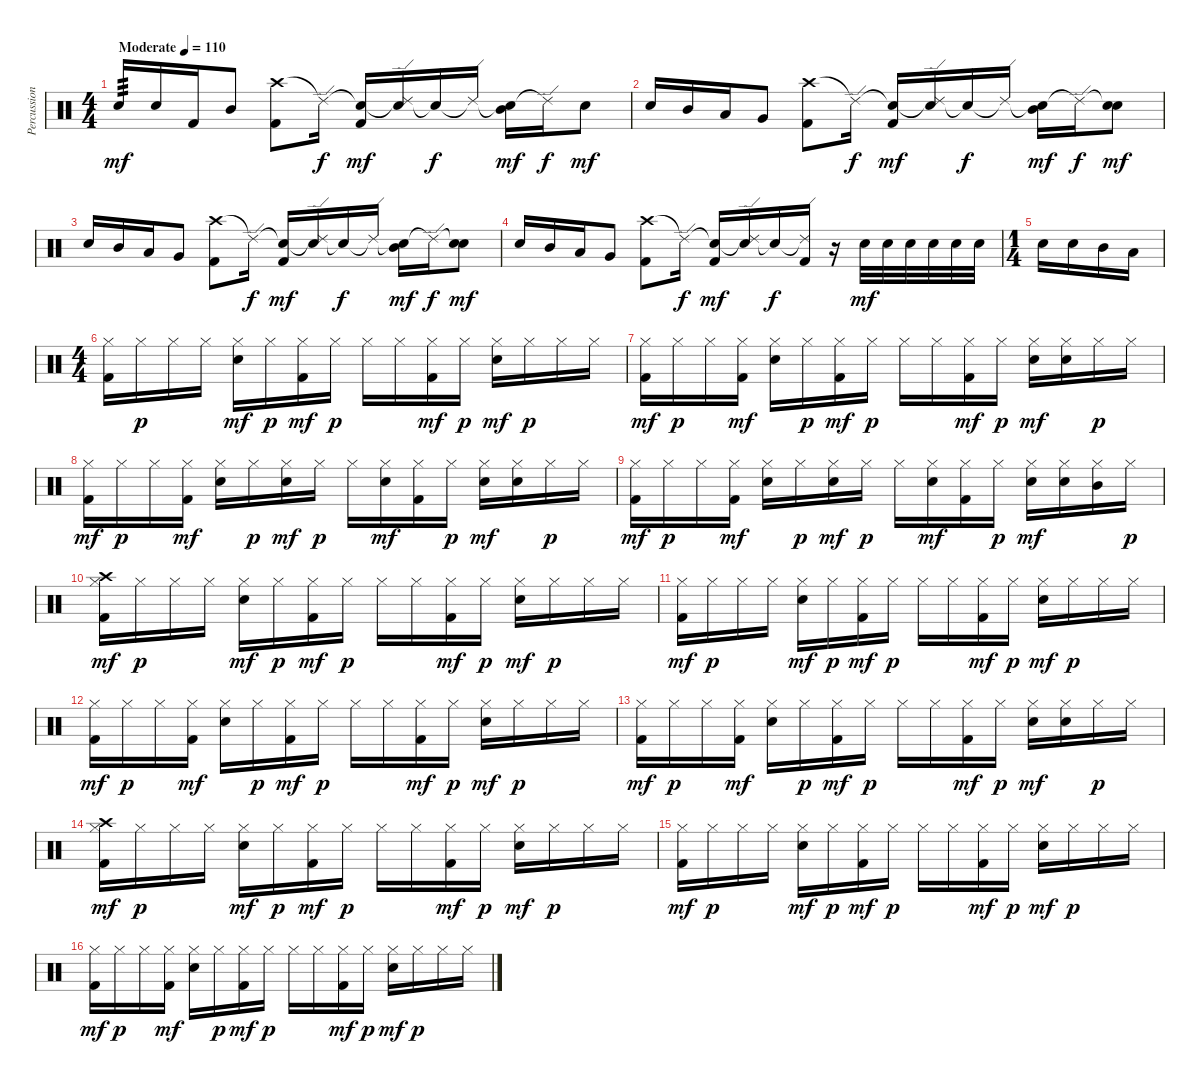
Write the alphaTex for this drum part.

\track ("Percussion" "Percussion") {instrument percussion}
\staff {score}
\articulation defaults
\ts (4 4)
\tempo (110 "Moderate")
\clef neutral
\ks c "Electric Snare (hit)".16{tp 3 dy mf} "Electric Snare (hit)".16 "Kick (hit) 2".16 "Mid Tom (hit)".8
("Crash high (hit)" "Kick (hit) 2").8 "Ride (edge) 2"{t}.16{dy f} ("Snare (hit)"{t} "Kick (hit) 2").16{dy mf} ("Ride (edge) 2"{t} "Electric Snare (hit)").16 "Snare (hit)"{t}.16{dy f} "Ride (edge) 2"{t}.16 ("Snare (hit)"{t} "Mid Tom (hit)").16{dy mf} "Ride (edge) 2"{t}.16{dy f} "Electric Snare (hit)".8{dy mf} |
"Electric Snare (hit)".16 "Mid Tom (hit)".16 "Low Tom (hit)".16 "Very Low Tom (hit)".8 ("Crash high (hit)" "Kick (hit) 2").8 "Ride (edge) 2"{t}.16{dy f} ("Snare (hit)"{t} "Kick (hit) 2").16{dy mf} ("Ride (edge) 2"{t} "Electric Snare (hit)").16 "Snare (hit)"{t}.16{dy f} "Ride (edge) 2"{t}.16 ("Snare (hit)"{t} "Mid Tom (hit)").16{dy mf} "Ride (edge) 2"{t}.16{dy f} ("Snare (hit)"{t} "Electric Snare (hit)").8{dy mf} |
"Electric Snare (hit)".16 "Mid Tom (hit)".16 "Low Tom (hit)".16 "Very Low Tom (hit)".8 ("Crash high (hit)" "Kick (hit) 2").8 "Ride (edge) 2"{t}.16{dy f} ("Snare (hit)"{t} "Kick (hit) 2").16{dy mf} ("Ride (edge) 2"{t} "Electric Snare (hit)").16 "Snare (hit)"{t}.16{dy f} "Ride (edge) 2"{t}.16 ("Snare (hit)"{t} "Mid Tom (hit)").16{dy mf} "Ride (edge) 2"{t}.16{dy f} ("Snare (hit)"{t} "Electric Snare (hit)").8{dy mf} |
"Electric Snare (hit)".16 "Mid Tom (hit)".16 "Low Tom (hit)".16 "Very Low Tom (hit)".8 ("Crash high (hit)" "Kick (hit) 2").8 "Ride (edge) 2"{t}.16{dy f} ("Snare (hit)"{t} "Kick (hit) 2").16{dy mf} ("Ride (edge) 2"{t} "Electric Snare (hit)").16 "Snare (hit)"{t}.16{dy f} ("Ride (edge) 2"{t} "Kick (hit) 2").16 r.16 "Electric Snare (hit)".32{dy mf} "Electric Snare (hit)".32 "Electric Snare (hit)".32 "Electric Snare (hit)".32 "Electric Snare (hit)".32 "Electric Snare (hit)".32 |
\ts (1 4)
"Electric Snare (hit)".16 "Electric Snare (hit)".16 "Mid Tom (hit)".16 "Low Tom (hit)".16 |
\ts (4 4)
("Hi-Hat (closed)" "Kick (hit) 2").16 "Hi-Hat (closed)".16{dy p} "Hi-Hat (closed)".16 "Hi-Hat (closed)".16 ("Hi-Hat (closed)" "Electric Snare (hit)").16{dy mf} "Hi-Hat (closed)".16{dy p} ("Hi-Hat (closed)" "Kick (hit) 2").16{dy mf} "Hi-Hat (closed)".16{dy p} "Hi-Hat (closed)".16 "Hi-Hat (closed)".16 ("Hi-Hat (closed)" "Kick (hit) 2").16{dy mf} "Hi-Hat (closed)".16{dy p} ("Hi-Hat (closed)" "Electric Snare (hit)").16{dy mf} "Hi-Hat (closed)".16{dy p} "Hi-Hat (closed)".16 "Hi-Hat (closed)".16 |
("Hi-Hat (closed)" "Kick (hit) 2").16{dy mf} "Hi-Hat (closed)".16{dy p} "Hi-Hat (closed)".16 ("Hi-Hat (closed)" "Kick (hit) 2").16{dy mf} ("Hi-Hat (closed)" "Electric Snare (hit)").16 "Hi-Hat (closed)".16{dy p} ("Hi-Hat (closed)" "Kick (hit) 2").16{dy mf} "Hi-Hat (closed)".16{dy p} "Hi-Hat (closed)".16 "Hi-Hat (closed)".16 ("Hi-Hat (closed)" "Kick (hit) 2").16{dy mf} "Hi-Hat (closed)".16{dy p} ("Hi-Hat (closed)" "Electric Snare (hit)").16{dy mf} ("Hi-Hat (closed)" "Electric Snare (hit)").16 "Hi-Hat (closed)".16{dy p} "Hi-Hat (closed)".16 |
("Hi-Hat (closed)" "Kick (hit) 2").16{dy mf} "Hi-Hat (closed)".16{dy p} "Hi-Hat (closed)".16 ("Hi-Hat (closed)" "Kick (hit) 2").16{dy mf} ("Hi-Hat (closed)" "Electric Snare (hit)").16 "Hi-Hat (closed)".16{dy p} ("Hi-Hat (closed)" "Electric Snare (hit)").16{dy mf} "Hi-Hat (closed)".16{dy p} "Hi-Hat (closed)".16 ("Hi-Hat (closed)" "Electric Snare (hit)").16{dy mf} ("Hi-Hat (closed)" "Kick (hit) 2").16 "Hi-Hat (closed)".16{dy p} ("Hi-Hat (closed)" "Electric Snare (hit)").16{dy mf} ("Hi-Hat (closed)" "Electric Snare (hit)").16 "Hi-Hat (closed)".16{dy p} "Hi-Hat (closed)".16 |
("Hi-Hat (closed)" "Kick (hit) 2").16{dy mf} "Hi-Hat (closed)".16{dy p} "Hi-Hat (closed)".16 ("Hi-Hat (closed)" "Kick (hit) 2").16{dy mf} ("Hi-Hat (closed)" "Electric Snare (hit)").16 "Hi-Hat (closed)".16{dy p} ("Hi-Hat (closed)" "Electric Snare (hit)").16{dy mf} "Hi-Hat (closed)".16{dy p} "Hi-Hat (closed)".16 ("Hi-Hat (closed)" "Electric Snare (hit)").16{dy mf} ("Hi-Hat (closed)" "Kick (hit) 2").16 "Hi-Hat (closed)".16{dy p} ("Hi-Hat (closed)" "Electric Snare (hit)").16{dy mf} ("Hi-Hat (closed)" "Electric Snare (hit)").16 ("Hi-Hat (closed)" "Mid Tom (hit)").16 "Hi-Hat (closed)".16{dy p} |
("Crash high (hit)" "Hi-Hat (closed)" "Kick (hit) 2").16{dy mf} "Hi-Hat (closed)".16{dy p} "Hi-Hat (closed)".16 "Hi-Hat (closed)".16 ("Hi-Hat (closed)" "Electric Snare (hit)").16{dy mf} "Hi-Hat (closed)".16{dy p} ("Hi-Hat (closed)" "Kick (hit) 2").16{dy mf} "Hi-Hat (closed)".16{dy p} "Hi-Hat (closed)".16 "Hi-Hat (closed)".16 ("Hi-Hat (closed)" "Kick (hit) 2").16{dy mf} "Hi-Hat (closed)".16{dy p} ("Hi-Hat (closed)" "Electric Snare (hit)").16{dy mf} "Hi-Hat (closed)".16{dy p} "Hi-Hat (closed)".16 "Hi-Hat (closed)".16 |
("Hi-Hat (closed)" "Kick (hit) 2").16{dy mf} "Hi-Hat (closed)".16{dy p} "Hi-Hat (closed)".16 "Hi-Hat (closed)".16 ("Hi-Hat (closed)" "Electric Snare (hit)").16{dy mf} "Hi-Hat (closed)".16{dy p} ("Hi-Hat (closed)" "Kick (hit) 2").16{dy mf} "Hi-Hat (closed)".16{dy p} "Hi-Hat (closed)".16 "Hi-Hat (closed)".16 ("Hi-Hat (closed)" "Kick (hit) 2").16{dy mf} "Hi-Hat (closed)".16{dy p} ("Hi-Hat (closed)" "Electric Snare (hit)").16{dy mf} "Hi-Hat (closed)".16{dy p} "Hi-Hat (closed)".16 "Hi-Hat (closed)".16 |
("Hi-Hat (closed)" "Kick (hit) 2").16{dy mf} "Hi-Hat (closed)".16{dy p} "Hi-Hat (closed)".16 ("Hi-Hat (closed)" "Kick (hit) 2").16{dy mf} ("Hi-Hat (closed)" "Electric Snare (hit)").16 "Hi-Hat (closed)".16{dy p} ("Hi-Hat (closed)" "Kick (hit) 2").16{dy mf} "Hi-Hat (closed)".16{dy p} "Hi-Hat (closed)".16 "Hi-Hat (closed)".16 ("Hi-Hat (closed)" "Kick (hit) 2").16{dy mf} "Hi-Hat (closed)".16{dy p} ("Hi-Hat (closed)" "Electric Snare (hit)").16{dy mf} "Hi-Hat (closed)".16{dy p} "Hi-Hat (closed)".16 "Hi-Hat (closed)".16 |
("Hi-Hat (closed)" "Kick (hit) 2").16{dy mf} "Hi-Hat (closed)".16{dy p} "Hi-Hat (closed)".16 ("Hi-Hat (closed)" "Kick (hit) 2").16{dy mf} ("Hi-Hat (closed)" "Electric Snare (hit)").16 "Hi-Hat (closed)".16{dy p} ("Hi-Hat (closed)" "Kick (hit) 2").16{dy mf} "Hi-Hat (closed)".16{dy p} "Hi-Hat (closed)".16 "Hi-Hat (closed)".16 ("Hi-Hat (closed)" "Kick (hit) 2").16{dy mf} "Hi-Hat (closed)".16{dy p} ("Hi-Hat (closed)" "Electric Snare (hit)").16{dy mf} ("Hi-Hat (closed)" "Electric Snare (hit)").16 "Hi-Hat (closed)".16{dy p} "Hi-Hat (closed)".16 |
("Crash high (hit)" "Hi-Hat (closed)" "Kick (hit) 2").16{dy mf} "Hi-Hat (closed)".16{dy p} "Hi-Hat (closed)".16 "Hi-Hat (closed)".16 ("Hi-Hat (closed)" "Electric Snare (hit)").16{dy mf} "Hi-Hat (closed)".16{dy p} ("Hi-Hat (closed)" "Kick (hit) 2").16{dy mf} "Hi-Hat (closed)".16{dy p} "Hi-Hat (closed)".16 "Hi-Hat (closed)".16 ("Hi-Hat (closed)" "Kick (hit) 2").16{dy mf} "Hi-Hat (closed)".16{dy p} ("Hi-Hat (closed)" "Electric Snare (hit)").16{dy mf} "Hi-Hat (closed)".16{dy p} "Hi-Hat (closed)".16 "Hi-Hat (closed)".16 |
("Hi-Hat (closed)" "Kick (hit) 2").16{dy mf} "Hi-Hat (closed)".16{dy p} "Hi-Hat (closed)".16 "Hi-Hat (closed)".16 ("Hi-Hat (closed)" "Electric Snare (hit)").16{dy mf} "Hi-Hat (closed)".16{dy p} ("Hi-Hat (closed)" "Kick (hit) 2").16{dy mf} "Hi-Hat (closed)".16{dy p} "Hi-Hat (closed)".16 "Hi-Hat (closed)".16 ("Hi-Hat (closed)" "Kick (hit) 2").16{dy mf} "Hi-Hat (closed)".16{dy p} ("Hi-Hat (closed)" "Electric Snare (hit)").16{dy mf} "Hi-Hat (closed)".16{dy p} "Hi-Hat (closed)".16 "Hi-Hat (closed)".16 |
("Hi-Hat (closed)" "Kick (hit) 2").16{dy mf} "Hi-Hat (closed)".16{dy p} "Hi-Hat (closed)".16 ("Hi-Hat (closed)" "Kick (hit) 2").16{dy mf} ("Hi-Hat (closed)" "Electric Snare (hit)").16 "Hi-Hat (closed)".16{dy p} ("Hi-Hat (closed)" "Kick (hit) 2").16{dy mf} "Hi-Hat (closed)".16{dy p} "Hi-Hat (closed)".16 "Hi-Hat (closed)".16 ("Hi-Hat (closed)" "Kick (hit) 2").16{dy mf} "Hi-Hat (closed)".16{dy p} ("Hi-Hat (closed)" "Electric Snare (hit)").16{dy mf} "Hi-Hat (closed)".16{dy p} "Hi-Hat (closed)".16 "Hi-Hat (closed)".16
